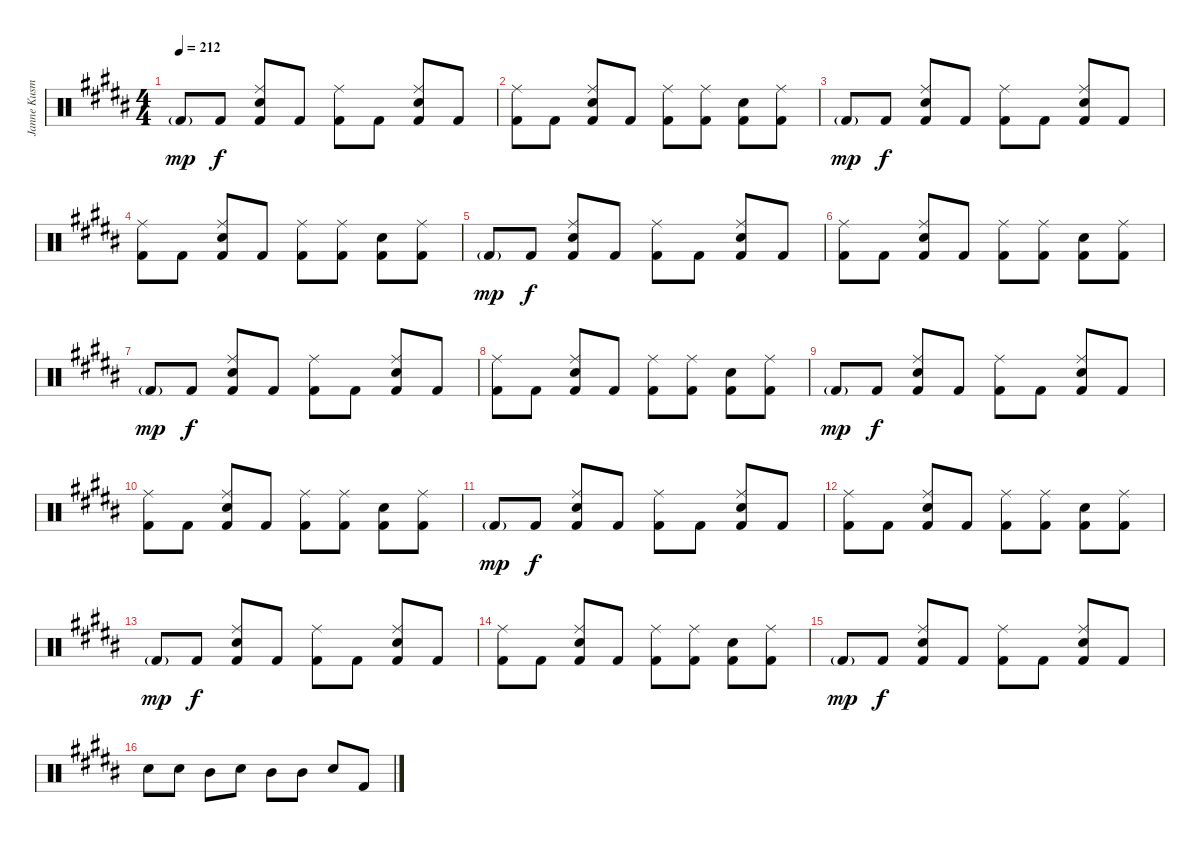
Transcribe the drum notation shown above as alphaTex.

\track ("Janne Kusmin" "Janne Kusm") {instrument percussion}
\staff {score}
\articulation defaults
\ts (4 4)
\tempo 212
\clef neutral
\ks g#minor "Kick (hit) 2"{g}.8{dy mp} "Kick (hit) 2".8{dy f}
("Ride (middle)" "Electric Snare (hit)" "Kick (hit) 2").8 "Kick (hit) 2".8 ("Ride (middle)" "Kick (hit) 2").8 "Kick (hit) 2".8 ("Ride (middle)" "Electric Snare (hit)" "Kick (hit) 2").8 "Kick (hit) 2".8 |
\ks b
("Ride (middle)" "Kick (hit) 2").8 "Kick (hit) 2".8 ("Ride (middle)" "Electric Snare (hit)" "Kick (hit) 2").8 "Kick (hit) 2".8 ("Ride (middle)" "Kick (hit) 2").8 ("Ride (middle)" "Kick (hit) 2").8 ("Electric Snare (hit)" "Kick (hit) 2").8 ("Ride (middle)" "Kick (hit) 2").8 |
\ks g#minor "Kick (hit) 2"{g}.8{dy mp} "Kick (hit) 2".8{dy f}
("Ride (middle)" "Electric Snare (hit)" "Kick (hit) 2").8 "Kick (hit) 2".8 ("Ride (middle)" "Kick (hit) 2").8 "Kick (hit) 2".8 ("Ride (middle)" "Electric Snare (hit)" "Kick (hit) 2").8 "Kick (hit) 2".8 |
\ks b
("Ride (middle)" "Kick (hit) 2").8 "Kick (hit) 2".8 ("Ride (middle)" "Electric Snare (hit)" "Kick (hit) 2").8 "Kick (hit) 2".8 ("Ride (middle)" "Kick (hit) 2").8 ("Ride (middle)" "Kick (hit) 2").8 ("Electric Snare (hit)" "Kick (hit) 2").8 ("Ride (middle)" "Kick (hit) 2").8 |
\ks g#minor "Kick (hit) 2"{g}.8{dy mp} "Kick (hit) 2".8{dy f}
("Ride (middle)" "Electric Snare (hit)" "Kick (hit) 2").8 "Kick (hit) 2".8 ("Ride (middle)" "Kick (hit) 2").8 "Kick (hit) 2".8 ("Ride (middle)" "Electric Snare (hit)" "Kick (hit) 2").8 "Kick (hit) 2".8 |
\ks b
("Ride (middle)" "Kick (hit) 2").8 "Kick (hit) 2".8 ("Ride (middle)" "Electric Snare (hit)" "Kick (hit) 2").8 "Kick (hit) 2".8 ("Ride (middle)" "Kick (hit) 2").8 ("Ride (middle)" "Kick (hit) 2").8 ("Electric Snare (hit)" "Kick (hit) 2").8 ("Ride (middle)" "Kick (hit) 2").8 |
\ks g#minor "Kick (hit) 2"{g}.8{dy mp} "Kick (hit) 2".8{dy f}
("Ride (middle)" "Electric Snare (hit)" "Kick (hit) 2").8 "Kick (hit) 2".8 ("Ride (middle)" "Kick (hit) 2").8 "Kick (hit) 2".8 ("Ride (middle)" "Electric Snare (hit)" "Kick (hit) 2").8 "Kick (hit) 2".8 |
\ks b
("Ride (middle)" "Kick (hit) 2").8 "Kick (hit) 2".8 ("Ride (middle)" "Electric Snare (hit)" "Kick (hit) 2").8 "Kick (hit) 2".8 ("Ride (middle)" "Kick (hit) 2").8 ("Ride (middle)" "Kick (hit) 2").8 ("Electric Snare (hit)" "Kick (hit) 2").8 ("Ride (middle)" "Kick (hit) 2").8 |
\ks g#minor "Kick (hit) 2"{g}.8{dy mp} "Kick (hit) 2".8{dy f}
("Ride (middle)" "Electric Snare (hit)" "Kick (hit) 2").8 "Kick (hit) 2".8 ("Ride (middle)" "Kick (hit) 2").8 "Kick (hit) 2".8 ("Ride (middle)" "Electric Snare (hit)" "Kick (hit) 2").8 "Kick (hit) 2".8 |
\ks b
("Ride (middle)" "Kick (hit) 2").8 "Kick (hit) 2".8 ("Ride (middle)" "Electric Snare (hit)" "Kick (hit) 2").8 "Kick (hit) 2".8 ("Ride (middle)" "Kick (hit) 2").8 ("Ride (middle)" "Kick (hit) 2").8 ("Electric Snare (hit)" "Kick (hit) 2").8 ("Ride (middle)" "Kick (hit) 2").8 |
\ks g#minor "Kick (hit) 2"{g}.8{dy mp} "Kick (hit) 2".8{dy f}
("Ride (middle)" "Electric Snare (hit)" "Kick (hit) 2").8 "Kick (hit) 2".8 ("Ride (middle)" "Kick (hit) 2").8 "Kick (hit) 2".8 ("Ride (middle)" "Electric Snare (hit)" "Kick (hit) 2").8 "Kick (hit) 2".8 |
\ks b
("Ride (middle)" "Kick (hit) 2").8 "Kick (hit) 2".8 ("Ride (middle)" "Electric Snare (hit)" "Kick (hit) 2").8 "Kick (hit) 2".8 ("Ride (middle)" "Kick (hit) 2").8 ("Ride (middle)" "Kick (hit) 2").8 ("Electric Snare (hit)" "Kick (hit) 2").8 ("Ride (middle)" "Kick (hit) 2").8 |
\ks g#minor "Kick (hit) 2"{g}.8{dy mp} "Kick (hit) 2".8{dy f}
("Ride (middle)" "Electric Snare (hit)" "Kick (hit) 2").8 "Kick (hit) 2".8 ("Ride (middle)" "Kick (hit) 2").8 "Kick (hit) 2".8 ("Ride (middle)" "Electric Snare (hit)" "Kick (hit) 2").8 "Kick (hit) 2".8 |
\ks b
("Ride (middle)" "Kick (hit) 2").8 "Kick (hit) 2".8 ("Ride (middle)" "Electric Snare (hit)" "Kick (hit) 2").8 "Kick (hit) 2".8 ("Ride (middle)" "Kick (hit) 2").8 ("Ride (middle)" "Kick (hit) 2").8 ("Electric Snare (hit)" "Kick (hit) 2").8 ("Ride (middle)" "Kick (hit) 2").8 |
\ks g#minor "Kick (hit) 2"{g}.8{dy mp} "Kick (hit) 2".8{dy f}
("Ride (middle)" "Electric Snare (hit)" "Kick (hit) 2").8 "Kick (hit) 2".8 ("Ride (middle)" "Kick (hit) 2").8 "Kick (hit) 2".8 ("Ride (middle)" "Electric Snare (hit)" "Kick (hit) 2").8 "Kick (hit) 2".8 |
\ks b "Electric Snare (hit)".8 "Electric Snare (hit)".8 "Mid Tom (hit)".8 "Electric Snare (hit)".8 "Mid Tom (hit)".8 "Mid Tom (hit)".8 "Electric Snare (hit)".8 "Kick (hit) 2".8
